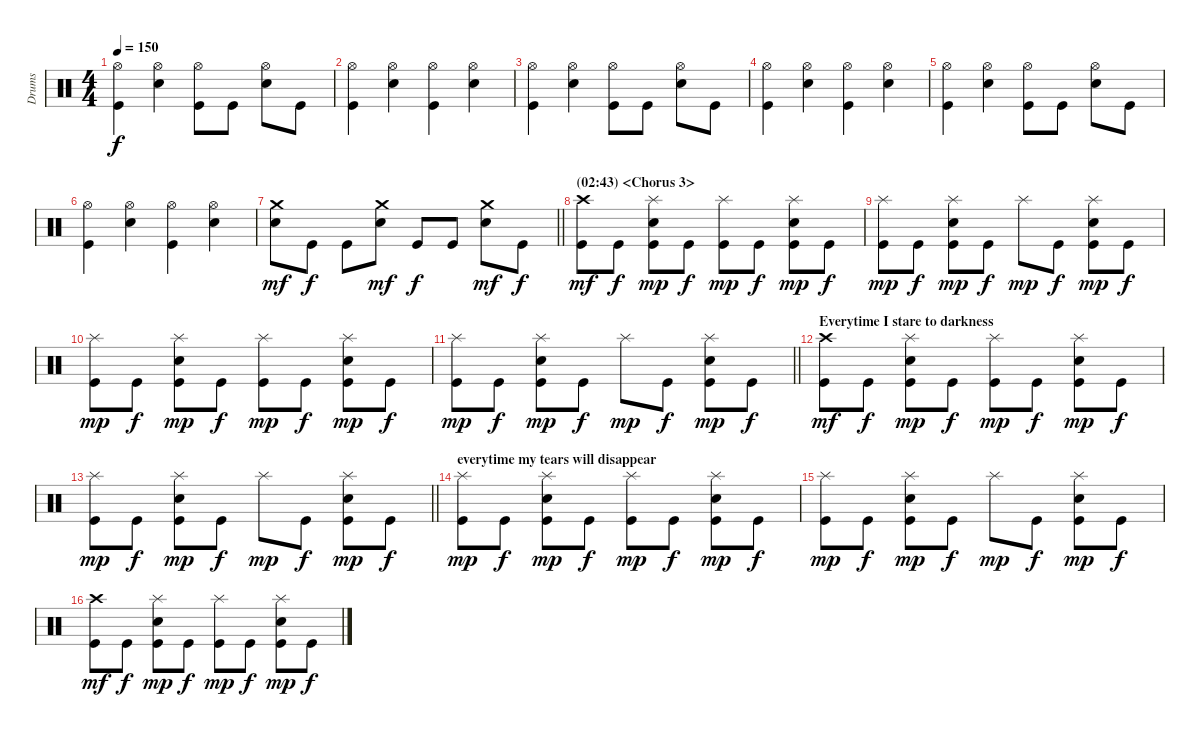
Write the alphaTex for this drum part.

\track ("Drums" "Drums") {instrument percussion}
\staff {score}
\articulation defaults
\ts (4 4)
\tempo 150
\clef neutral
\ks c
("Hi-Hat (open)" "Kick (hit)").4{dy f} ("Hi-Hat (open)" "Snare (hit) 2").4 ("Hi-Hat (open)" "Kick (hit)").8 "Kick (hit)".8 ("Hi-Hat (open)" "Snare (hit) 2").8 "Kick (hit)".8 |
("Hi-Hat (open)" "Kick (hit)").4 ("Hi-Hat (open)" "Snare (hit) 2").4 ("Hi-Hat (open)" "Kick (hit)").4 ("Hi-Hat (open)" "Snare (hit) 2").4 |
("Hi-Hat (open)" "Kick (hit)").4 ("Hi-Hat (open)" "Snare (hit) 2").4 ("Hi-Hat (open)" "Kick (hit)").8 "Kick (hit)".8 ("Hi-Hat (open)" "Snare (hit) 2").8 "Kick (hit)".8 |
("Hi-Hat (open)" "Kick (hit)").4 ("Hi-Hat (open)" "Snare (hit) 2").4 ("Hi-Hat (open)" "Kick (hit)").4 ("Hi-Hat (open)" "Snare (hit) 2").4 |
("Hi-Hat (open)" "Kick (hit)").4 ("Hi-Hat (open)" "Snare (hit) 2").4 ("Hi-Hat (open)" "Kick (hit)").8 "Kick (hit)".8 ("Hi-Hat (open)" "Snare (hit) 2").8 "Kick (hit)".8 |
("Hi-Hat (open)" "Kick (hit)").4 ("Hi-Hat (open)" "Snare (hit) 2").4 ("Hi-Hat (open)" "Kick (hit)").4 ("Hi-Hat (open)" "Snare (hit) 2").4 |
\barLineRight lightlight
("Crash medium (hit)" "Snare (hit) 2").8{dy mf} "Kick (hit)".8{dy f} "Kick (hit)".8 ("Crash medium (hit)" "Snare (hit) 2").8{dy mf} "Kick (hit)".8{dy f} "Kick (hit)".8 ("Crash medium (hit)" "Snare (hit) 2").8{dy mf} "Kick (hit)".8{dy f} |
\section ("" "(02:43) <Chorus 3>")
("Crash high (hit)" "Kick (hit)").8{dy mf} "Kick (hit)".8{dy f} ("Splash (hit)" "Snare (hit) 2" "Kick (hit)").8{dy mp} "Kick (hit)".8{dy f} ("Splash (hit)" "Kick (hit)").8{dy mp} "Kick (hit)".8{dy f} ("Splash (hit)" "Snare (hit) 2" "Kick (hit)").8{dy mp} "Kick (hit)".8{dy f} |
("Splash (hit)" "Kick (hit)").8{dy mp} "Kick (hit)".8{dy f} ("Splash (hit)" "Snare (hit) 2" "Kick (hit)").8{dy mp} "Kick (hit)".8{dy f} "Splash (hit)".8{dy mp} "Kick (hit)".8{dy f} ("Splash (hit)" "Snare (hit) 2" "Kick (hit)").8{dy mp} "Kick (hit)".8{dy f} |
("Splash (hit)" "Kick (hit)").8{dy mp} "Kick (hit)".8{dy f} ("Splash (hit)" "Snare (hit) 2" "Kick (hit)").8{dy mp} "Kick (hit)".8{dy f} ("Splash (hit)" "Kick (hit)").8{dy mp} "Kick (hit)".8{dy f} ("Splash (hit)" "Snare (hit) 2" "Kick (hit)").8{dy mp} "Kick (hit)".8{dy f} |
\barLineRight lightlight
("Splash (hit)" "Kick (hit)").8{dy mp} "Kick (hit)".8{dy f} ("Splash (hit)" "Snare (hit) 2" "Kick (hit)").8{dy mp} "Kick (hit)".8{dy f} "Splash (hit)".8{dy mp} "Kick (hit)".8{dy f} ("Splash (hit)" "Snare (hit) 2" "Kick (hit)").8{dy mp} "Kick (hit)".8{dy f} |
\section ("" "Everytime I stare to darkness")
("Crash high (hit)" "Kick (hit)").8{dy mf} "Kick (hit)".8{dy f} ("Splash (hit)" "Snare (hit) 2" "Kick (hit)").8{dy mp} "Kick (hit)".8{dy f} ("Splash (hit)" "Kick (hit)").8{dy mp} "Kick (hit)".8{dy f} ("Splash (hit)" "Snare (hit) 2" "Kick (hit)").8{dy mp} "Kick (hit)".8{dy f} |
\barLineRight lightlight
("Splash (hit)" "Kick (hit)").8{dy mp} "Kick (hit)".8{dy f} ("Splash (hit)" "Snare (hit) 2" "Kick (hit)").8{dy mp} "Kick (hit)".8{dy f} "Splash (hit)".8{dy mp} "Kick (hit)".8{dy f} ("Splash (hit)" "Snare (hit) 2" "Kick (hit)").8{dy mp} "Kick (hit)".8{dy f} |
\section ("" "everytime my tears will disappear")
("Splash (hit)" "Kick (hit)").8{dy mp} "Kick (hit)".8{dy f} ("Splash (hit)" "Snare (hit) 2" "Kick (hit)").8{dy mp} "Kick (hit)".8{dy f} ("Splash (hit)" "Kick (hit)").8{dy mp} "Kick (hit)".8{dy f} ("Splash (hit)" "Snare (hit) 2" "Kick (hit)").8{dy mp} "Kick (hit)".8{dy f} |
("Splash (hit)" "Kick (hit)").8{dy mp} "Kick (hit)".8{dy f} ("Splash (hit)" "Snare (hit) 2" "Kick (hit)").8{dy mp} "Kick (hit)".8{dy f} "Splash (hit)".8{dy mp} "Kick (hit)".8{dy f} ("Splash (hit)" "Snare (hit) 2" "Kick (hit)").8{dy mp} "Kick (hit)".8{dy f} |
("Crash high (hit)" "Kick (hit)").8{dy mf} "Kick (hit)".8{dy f} ("Splash (hit)" "Snare (hit) 2" "Kick (hit)").8{dy mp} "Kick (hit)".8{dy f} ("Splash (hit)" "Kick (hit)").8{dy mp} "Kick (hit)".8{dy f} ("Splash (hit)" "Snare (hit) 2" "Kick (hit)").8{dy mp} "Kick (hit)".8{dy f}
